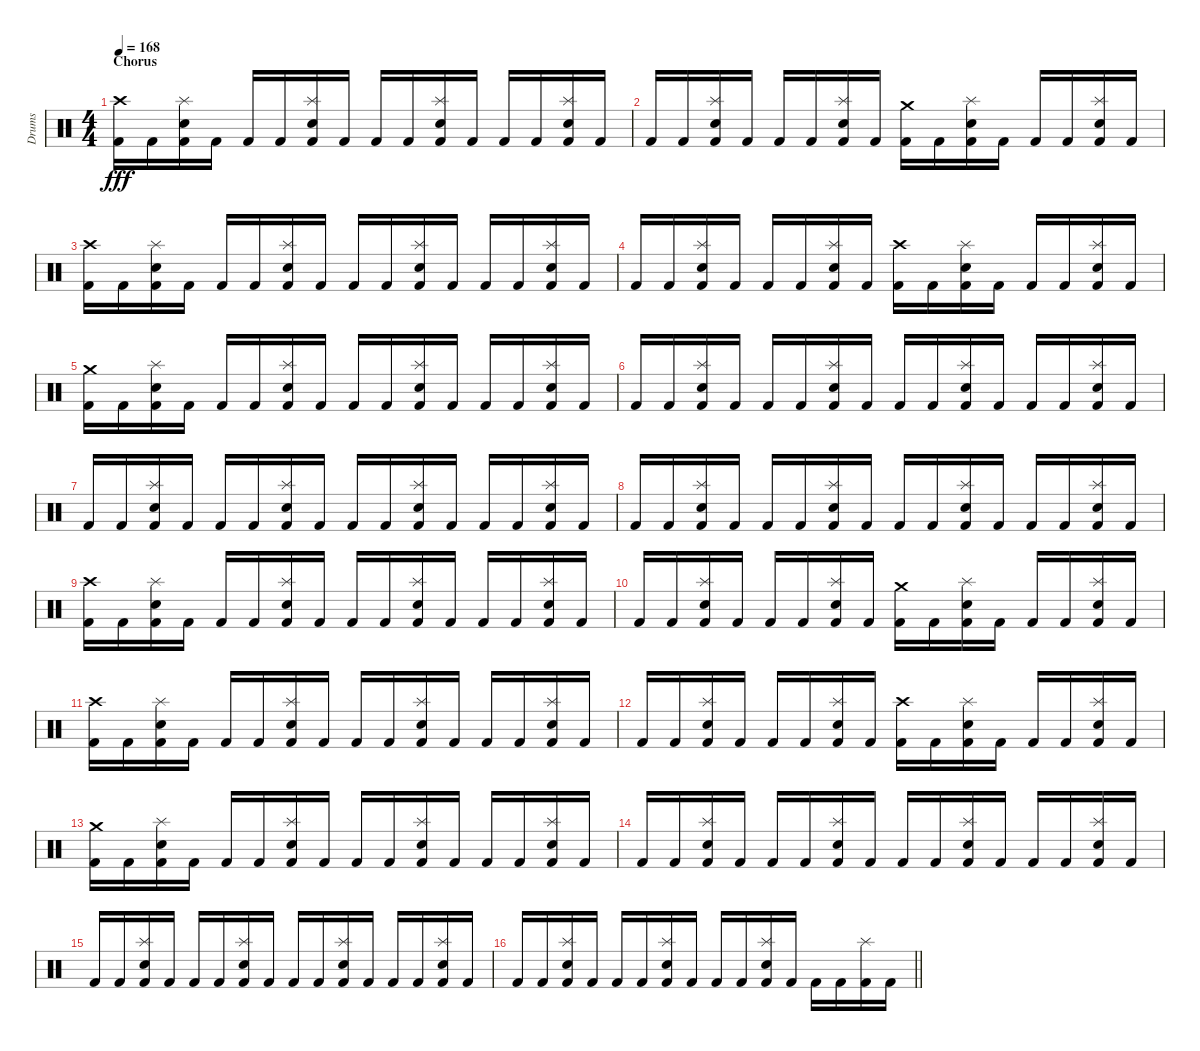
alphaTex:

\track ("Drums" "Drums") {instrument percussion}
\staff {score}
\articulation defaults
\ts (4 4)
\section ("" "Chorus")
\tempo 168
\clef neutral
\ks c
("Crash high (hit)" "Kick (hit) 2").16{dy fff} "Kick (hit) 2".16 ("Splash (hit)" "Snare (hit) 2" "Kick (hit) 2").16 "Kick (hit) 2".16 "Kick (hit) 2".16 "Kick (hit) 2".16 ("Splash (hit)" "Snare (hit) 2" "Kick (hit) 2").16 "Kick (hit) 2".16 "Kick (hit) 2".16 "Kick (hit) 2".16 ("Splash (hit)" "Snare (hit) 2" "Kick (hit) 2").16 "Kick (hit) 2".16 "Kick (hit) 2".16 "Kick (hit) 2".16 ("Splash (hit)" "Snare (hit) 2" "Kick (hit) 2").16 "Kick (hit) 2".16 |
"Kick (hit) 2".16 "Kick (hit) 2".16 ("Splash (hit)" "Snare (hit) 2" "Kick (hit) 2").16 "Kick (hit) 2".16 "Kick (hit) 2".16 "Kick (hit) 2".16 ("Splash (hit)" "Snare (hit) 2" "Kick (hit) 2").16 "Kick (hit) 2".16 ("Crash medium (hit)" "Kick (hit) 2").16 "Kick (hit) 2".16 ("Splash (hit)" "Snare (hit) 2" "Kick (hit) 2").16 "Kick (hit) 2".16 "Kick (hit) 2".16 "Kick (hit) 2".16 ("Splash (hit)" "Snare (hit) 2" "Kick (hit) 2").16 "Kick (hit) 2".16 |
("Crash high (hit)" "Kick (hit) 2").16 "Kick (hit) 2".16 ("Splash (hit)" "Snare (hit) 2" "Kick (hit) 2").16 "Kick (hit) 2".16 "Kick (hit) 2".16 "Kick (hit) 2".16 ("Splash (hit)" "Snare (hit) 2" "Kick (hit) 2").16 "Kick (hit) 2".16 "Kick (hit) 2".16 "Kick (hit) 2".16 ("Splash (hit)" "Snare (hit) 2" "Kick (hit) 2").16 "Kick (hit) 2".16 "Kick (hit) 2".16 "Kick (hit) 2".16 ("Splash (hit)" "Snare (hit) 2" "Kick (hit) 2").16 "Kick (hit) 2".16 |
"Kick (hit) 2".16 "Kick (hit) 2".16 ("Splash (hit)" "Snare (hit) 2" "Kick (hit) 2").16 "Kick (hit) 2".16 "Kick (hit) 2".16 "Kick (hit) 2".16 ("Splash (hit)" "Snare (hit) 2" "Kick (hit) 2").16 "Kick (hit) 2".16 ("Crash high (hit)" "Kick (hit) 2").16 "Kick (hit) 2".16 ("Splash (hit)" "Snare (hit) 2" "Kick (hit) 2").16 "Kick (hit) 2".16 "Kick (hit) 2".16 "Kick (hit) 2".16 ("Splash (hit)" "Snare (hit) 2" "Kick (hit) 2").16 "Kick (hit) 2".16 |
("Crash medium (hit)" "Kick (hit) 2").16 "Kick (hit) 2".16 ("Splash (hit)" "Snare (hit) 2" "Kick (hit) 2").16 "Kick (hit) 2".16 "Kick (hit) 2".16 "Kick (hit) 2".16 ("Splash (hit)" "Snare (hit) 2" "Kick (hit) 2").16 "Kick (hit) 2".16 "Kick (hit) 2".16 "Kick (hit) 2".16 ("Splash (hit)" "Snare (hit) 2" "Kick (hit) 2").16 "Kick (hit) 2".16 "Kick (hit) 2".16 "Kick (hit) 2".16 ("Splash (hit)" "Snare (hit) 2" "Kick (hit) 2").16 "Kick (hit) 2".16 |
"Kick (hit) 2".16 "Kick (hit) 2".16 ("Splash (hit)" "Snare (hit) 2" "Kick (hit) 2").16 "Kick (hit) 2".16 "Kick (hit) 2".16 "Kick (hit) 2".16 ("Splash (hit)" "Snare (hit) 2" "Kick (hit) 2").16 "Kick (hit) 2".16 "Kick (hit) 2".16 "Kick (hit) 2".16 ("Splash (hit)" "Snare (hit) 2" "Kick (hit) 2").16 "Kick (hit) 2".16 "Kick (hit) 2".16 "Kick (hit) 2".16 ("Splash (hit)" "Snare (hit) 2" "Kick (hit) 2").16 "Kick (hit) 2".16 |
"Kick (hit) 2".16 "Kick (hit) 2".16 ("Splash (hit)" "Snare (hit) 2" "Kick (hit) 2").16 "Kick (hit) 2".16 "Kick (hit) 2".16 "Kick (hit) 2".16 ("Splash (hit)" "Snare (hit) 2" "Kick (hit) 2").16 "Kick (hit) 2".16 "Kick (hit) 2".16 "Kick (hit) 2".16 ("Splash (hit)" "Snare (hit) 2" "Kick (hit) 2").16 "Kick (hit) 2".16 "Kick (hit) 2".16 "Kick (hit) 2".16 ("Splash (hit)" "Snare (hit) 2" "Kick (hit) 2").16 "Kick (hit) 2".16 |
"Kick (hit) 2".16 "Kick (hit) 2".16 ("Splash (hit)" "Snare (hit) 2" "Kick (hit) 2").16 "Kick (hit) 2".16 "Kick (hit) 2".16 "Kick (hit) 2".16 ("Splash (hit)" "Snare (hit) 2" "Kick (hit) 2").16 "Kick (hit) 2".16 "Kick (hit) 2".16 "Kick (hit) 2".16 ("Splash (hit)" "Snare (hit) 2" "Kick (hit) 2").16 "Kick (hit) 2".16 "Kick (hit) 2".16 "Kick (hit) 2".16 ("Splash (hit)" "Snare (hit) 2" "Kick (hit) 2").16 "Kick (hit) 2".16 |
("Crash high (hit)" "Kick (hit) 2").16 "Kick (hit) 2".16 ("Splash (hit)" "Snare (hit) 2" "Kick (hit) 2").16 "Kick (hit) 2".16 "Kick (hit) 2".16 "Kick (hit) 2".16 ("Splash (hit)" "Snare (hit) 2" "Kick (hit) 2").16 "Kick (hit) 2".16 "Kick (hit) 2".16 "Kick (hit) 2".16 ("Splash (hit)" "Snare (hit) 2" "Kick (hit) 2").16 "Kick (hit) 2".16 "Kick (hit) 2".16 "Kick (hit) 2".16 ("Splash (hit)" "Snare (hit) 2" "Kick (hit) 2").16 "Kick (hit) 2".16 |
"Kick (hit) 2".16 "Kick (hit) 2".16 ("Splash (hit)" "Snare (hit) 2" "Kick (hit) 2").16 "Kick (hit) 2".16 "Kick (hit) 2".16 "Kick (hit) 2".16 ("Splash (hit)" "Snare (hit) 2" "Kick (hit) 2").16 "Kick (hit) 2".16 ("Crash medium (hit)" "Kick (hit) 2").16 "Kick (hit) 2".16 ("Splash (hit)" "Snare (hit) 2" "Kick (hit) 2").16 "Kick (hit) 2".16 "Kick (hit) 2".16 "Kick (hit) 2".16 ("Splash (hit)" "Snare (hit) 2" "Kick (hit) 2").16 "Kick (hit) 2".16 |
("Crash high (hit)" "Kick (hit) 2").16 "Kick (hit) 2".16 ("Splash (hit)" "Snare (hit) 2" "Kick (hit) 2").16 "Kick (hit) 2".16 "Kick (hit) 2".16 "Kick (hit) 2".16 ("Splash (hit)" "Snare (hit) 2" "Kick (hit) 2").16 "Kick (hit) 2".16 "Kick (hit) 2".16 "Kick (hit) 2".16 ("Splash (hit)" "Snare (hit) 2" "Kick (hit) 2").16 "Kick (hit) 2".16 "Kick (hit) 2".16 "Kick (hit) 2".16 ("Splash (hit)" "Snare (hit) 2" "Kick (hit) 2").16 "Kick (hit) 2".16 |
"Kick (hit) 2".16 "Kick (hit) 2".16 ("Splash (hit)" "Snare (hit) 2" "Kick (hit) 2").16 "Kick (hit) 2".16 "Kick (hit) 2".16 "Kick (hit) 2".16 ("Splash (hit)" "Snare (hit) 2" "Kick (hit) 2").16 "Kick (hit) 2".16 ("Crash high (hit)" "Kick (hit) 2").16 "Kick (hit) 2".16 ("Splash (hit)" "Snare (hit) 2" "Kick (hit) 2").16 "Kick (hit) 2".16 "Kick (hit) 2".16 "Kick (hit) 2".16 ("Splash (hit)" "Snare (hit) 2" "Kick (hit) 2").16 "Kick (hit) 2".16 |
("Crash medium (hit)" "Kick (hit) 2").16 "Kick (hit) 2".16 ("Splash (hit)" "Snare (hit) 2" "Kick (hit) 2").16 "Kick (hit) 2".16 "Kick (hit) 2".16 "Kick (hit) 2".16 ("Splash (hit)" "Snare (hit) 2" "Kick (hit) 2").16 "Kick (hit) 2".16 "Kick (hit) 2".16 "Kick (hit) 2".16 ("Splash (hit)" "Snare (hit) 2" "Kick (hit) 2").16 "Kick (hit) 2".16 "Kick (hit) 2".16 "Kick (hit) 2".16 ("Splash (hit)" "Snare (hit) 2" "Kick (hit) 2").16 "Kick (hit) 2".16 |
"Kick (hit) 2".16 "Kick (hit) 2".16 ("Splash (hit)" "Snare (hit) 2" "Kick (hit) 2").16 "Kick (hit) 2".16 "Kick (hit) 2".16 "Kick (hit) 2".16 ("Splash (hit)" "Snare (hit) 2" "Kick (hit) 2").16 "Kick (hit) 2".16 "Kick (hit) 2".16 "Kick (hit) 2".16 ("Splash (hit)" "Snare (hit) 2" "Kick (hit) 2").16 "Kick (hit) 2".16 "Kick (hit) 2".16 "Kick (hit) 2".16 ("Splash (hit)" "Snare (hit) 2" "Kick (hit) 2").16 "Kick (hit) 2".16 |
"Kick (hit) 2".16 "Kick (hit) 2".16 ("Splash (hit)" "Snare (hit) 2" "Kick (hit) 2").16 "Kick (hit) 2".16 "Kick (hit) 2".16 "Kick (hit) 2".16 ("Splash (hit)" "Snare (hit) 2" "Kick (hit) 2").16 "Kick (hit) 2".16 "Kick (hit) 2".16 "Kick (hit) 2".16 ("Splash (hit)" "Snare (hit) 2" "Kick (hit) 2").16 "Kick (hit) 2".16 "Kick (hit) 2".16 "Kick (hit) 2".16 ("Splash (hit)" "Snare (hit) 2" "Kick (hit) 2").16 "Kick (hit) 2".16 |
\barLineRight lightlight "Kick (hit) 2".16 "Kick (hit) 2".16
("Splash (hit)" "Snare (hit) 2" "Kick (hit) 2").16 "Kick (hit) 2".16 "Kick (hit) 2".16 "Kick (hit) 2".16 ("Splash (hit)" "Snare (hit) 2" "Kick (hit) 2").16 "Kick (hit) 2".16 "Kick (hit) 2".16 "Kick (hit) 2".16 ("Splash (hit)" "Snare (hit) 2" "Kick (hit) 2").16 "Kick (hit) 2".16 "Kick (hit) 2".16 "Kick (hit) 2".16 ("Splash (hit)" "Kick (hit) 2").16 "Kick (hit) 2".16
